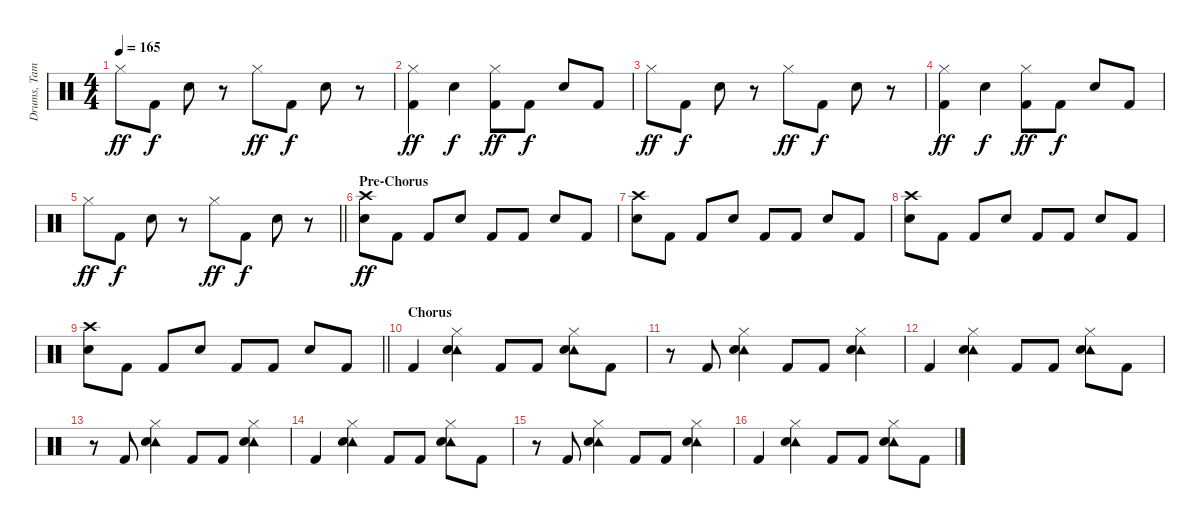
\track ("Drums, Tambourine, Castinets" "Drums, Tam") {instrument percussion}
\staff {score}
\articulation defaults
\ts (4 4)
\tempo 165
\clef neutral
\ks c "Hi-Hat (closed)".8{dy ff} "Kick (hit) 2".8{dy f} "Snare (hit) 2".8
r.8 "Hi-Hat (closed)".8{dy ff} "Kick (hit) 2".8{dy f} "Snare (hit) 2".8 r.8 |
("Hi-Hat (closed)" "Kick (hit) 2").4{dy ff} "Snare (hit) 2".4{dy f} ("Hi-Hat (closed)" "Kick (hit) 2").8{dy ff} "Kick (hit) 2".8{dy f} "Snare (hit) 2".8 "Kick (hit) 2".8 |
"Hi-Hat (closed)".8{dy ff} "Kick (hit) 2".8{dy f} "Snare (hit) 2".8 r.8 "Hi-Hat (closed)".8{dy ff} "Kick (hit) 2".8{dy f} "Snare (hit) 2".8 r.8 |
("Hi-Hat (closed)" "Kick (hit) 2").4{dy ff} "Snare (hit) 2".4{dy f} ("Hi-Hat (closed)" "Kick (hit) 2").8{dy ff} "Kick (hit) 2".8{dy f} "Snare (hit) 2".8 "Kick (hit) 2".8 |
\barLineRight lightlight "Hi-Hat (closed)".8{dy ff} "Kick (hit) 2".8{dy f} "Snare (hit) 2".8
r.8 "Hi-Hat (closed)".8{dy ff} "Kick (hit) 2".8{dy f} "Snare (hit) 2".8 r.8 |
\section ("" "Pre-Chorus")
("Crash high (hit)" "Snare (hit) 2").8{dy ff} "Kick (hit) 2".8 "Kick (hit) 2".8 "Snare (hit) 2".8 "Kick (hit) 2".8 "Kick (hit) 2".8 "Snare (hit) 2".8 "Kick (hit) 2".8 |
("Crash high (hit)" "Snare (hit) 2").8 "Kick (hit) 2".8 "Kick (hit) 2".8 "Snare (hit) 2".8 "Kick (hit) 2".8 "Kick (hit) 2".8 "Snare (hit) 2".8 "Kick (hit) 2".8 |
("Crash high (hit)" "Snare (hit) 2").8 "Kick (hit) 2".8 "Kick (hit) 2".8 "Snare (hit) 2".8 "Kick (hit) 2".8 "Kick (hit) 2".8 "Snare (hit) 2".8 "Kick (hit) 2".8 |
\barLineRight lightlight
("Crash high (hit)" "Snare (hit) 2").8 "Kick (hit) 2".8 "Kick (hit) 2".8 "Snare (hit) 2".8 "Kick (hit) 2".8 "Kick (hit) 2".8 "Snare (hit) 2".8 "Kick (hit) 2".8 |
\section ("" "Chorus")
"Kick (hit) 2".4 ("Tambourine (hit)" "Hi-Hat (closed)" "Snare (hit) 2").4 "Kick (hit) 2".8 "Kick (hit) 2".8 ("Tambourine (hit)" "Hi-Hat (closed)" "Snare (hit) 2").8 "Kick (hit) 2".8 |
r.8 "Kick (hit) 2".8 ("Tambourine (hit)" "Hi-Hat (closed)" "Snare (hit) 2").4 "Kick (hit) 2".8 "Kick (hit) 2".8 ("Tambourine (hit)" "Hi-Hat (closed)" "Snare (hit) 2").4 |
"Kick (hit) 2".4 ("Tambourine (hit)" "Hi-Hat (closed)" "Snare (hit) 2").4 "Kick (hit) 2".8 "Kick (hit) 2".8 ("Tambourine (hit)" "Hi-Hat (closed)" "Snare (hit) 2").8 "Kick (hit) 2".8 |
r.8 "Kick (hit) 2".8 ("Tambourine (hit)" "Hi-Hat (closed)" "Snare (hit) 2").4 "Kick (hit) 2".8 "Kick (hit) 2".8 ("Tambourine (hit)" "Hi-Hat (closed)" "Snare (hit) 2").4 |
"Kick (hit) 2".4 ("Tambourine (hit)" "Hi-Hat (closed)" "Snare (hit) 2").4 "Kick (hit) 2".8 "Kick (hit) 2".8 ("Tambourine (hit)" "Hi-Hat (closed)" "Snare (hit) 2").8 "Kick (hit) 2".8 |
r.8 "Kick (hit) 2".8 ("Tambourine (hit)" "Hi-Hat (closed)" "Snare (hit) 2").4 "Kick (hit) 2".8 "Kick (hit) 2".8 ("Tambourine (hit)" "Hi-Hat (closed)" "Snare (hit) 2").4 |
"Kick (hit) 2".4 ("Tambourine (hit)" "Hi-Hat (closed)" "Snare (hit) 2").4 "Kick (hit) 2".8 "Kick (hit) 2".8 ("Tambourine (hit)" "Hi-Hat (closed)" "Snare (hit) 2").8 "Kick (hit) 2".8
